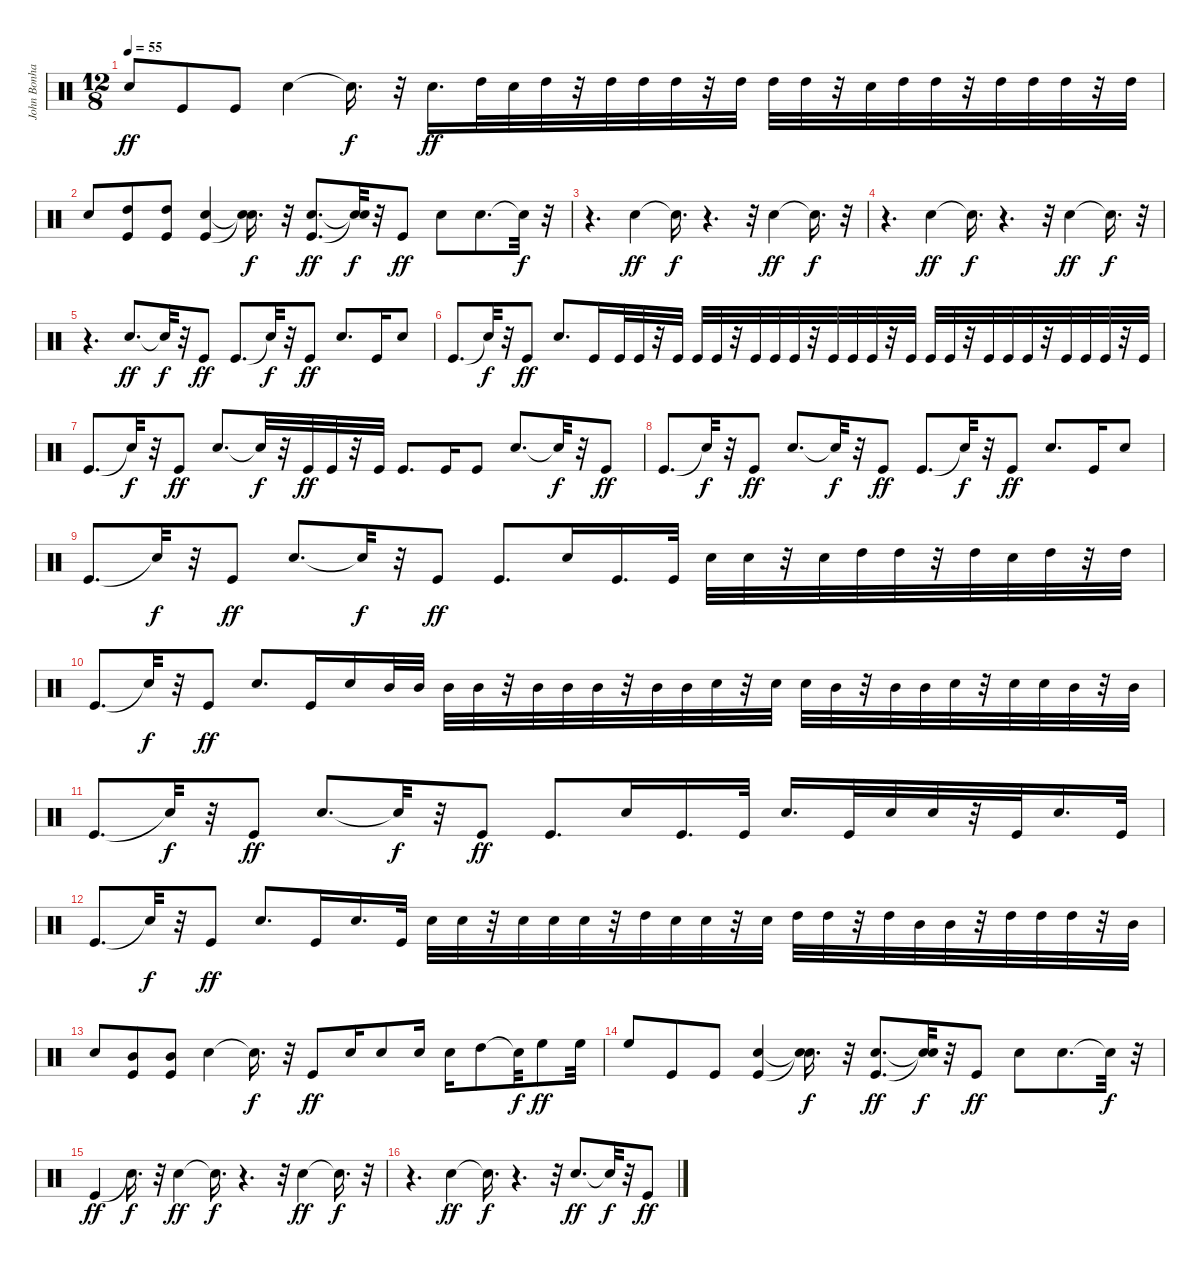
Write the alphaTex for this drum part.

\track ("John Bonham - Drums" "John Bonha") {instrument percussion}
\staff {score}
\articulation defaults
\ts (12 8)
\tempo 55
\clef neutral
\ks c "Snare (hit) 2".8{dy ff} "Kick (hit)".8 "Kick (hit)".8 "Snare (hit) 2".4 "Snare (hit)"{t}.16{d dy f}
r.32 "Snare (hit) 2".16{d dy ff} "High Tom (hit)".32 "Snare (hit) 2".32 "High Tom (hit)".32 r.32 "High Tom (hit)".32 "High Tom (hit)".32 "High Tom (hit)".32 r.32 "High Tom (hit)".32 "High Tom (hit)".32 "High Tom (hit)".32 r.32 "Snare (hit) 2".32 "High Tom (hit)".32 "High Tom (hit)".32 r.32 "High Tom (hit)".32 "High Tom (hit)".32 "High Tom (hit)".32 r.32 "High Tom (hit)".32 |
"Snare (hit) 2".8 ("Kick (hit)" "High Tom (hit)").8 ("Kick (hit)" "High Tom (hit)").8 ("Kick (hit)" "Snare (hit) 2").4 ("Snare (hit)"{t} "Snare (hit)"{t}).16{d dy f} r.32 ("Kick (hit)" "Snare (hit) 2").8{d dy ff} ("Snare (hit)"{t} "Snare (hit)"{t}).32{dy f} r.32 "Kick (hit)".8{dy ff} "Snare (hit) 2".8 "Snare (hit) 2".8{d} "Snare (hit)"{t}.32{dy f} r.32 |
r.4{d} "Snare (hit) 2".4{dy ff} "Snare (hit)"{t}.16{d dy f} r.4{d} r.32 "Snare (hit) 2".4{dy ff} "Snare (hit)"{t}.16{d dy f} r.32 |
r.4{d} "Snare (hit) 2".4{dy ff} "Snare (hit)"{t}.16{d dy f} r.4{d} r.32 "Snare (hit) 2".4{dy ff} "Snare (hit)"{t}.16{d dy f} r.32 |
r.4{d} "Snare (hit) 2".8{d dy ff} "Snare (hit)"{t}.32{dy f} r.32 "Kick (hit)".8{dy ff} "Kick (hit)".8{d} "Snare (hit)"{t}.32{dy f} r.32 "Kick (hit)".8{dy ff} "Snare (hit) 2".8{d} "Kick (hit)".16 "Snare (hit) 2".8 |
"Kick (hit)".8{d} "Snare (hit)"{t}.32{dy f} r.32 "Kick (hit)".8{dy ff} "Snare (hit) 2".8{d} "Kick (hit)".16 "Kick (hit)".32 "Kick (hit)".32 r.32 "Kick (hit)".32 "Kick (hit)".32 "Kick (hit)".32 r.32 "Kick (hit)".32 "Kick (hit)".32 "Kick (hit)".32 r.32 "Kick (hit)".32 "Kick (hit)".32 "Kick (hit)".32 r.32 "Kick (hit)".32 "Kick (hit)".32 "Kick (hit)".32 r.32 "Kick (hit)".32 "Kick (hit)".32 "Kick (hit)".32 r.32 "Kick (hit)".32 "Kick (hit)".32 "Kick (hit)".32 r.32 "Kick (hit)".32 |
"Kick (hit)".8{d} "Snare (hit)"{t}.32{dy f} r.32 "Kick (hit)".8{dy ff} "Snare (hit) 2".8{d} "Snare (hit)"{t}.32{dy f} r.32 "Kick (hit)".32{dy ff} "Kick (hit)".32 r.32 "Kick (hit)".32 "Kick (hit)".8{d} "Kick (hit)".16 "Kick (hit)".8 "Snare (hit) 2".8{d} "Snare (hit)"{t}.32{dy f} r.32 "Kick (hit)".8{dy ff} |
"Kick (hit)".8{d} "Snare (hit)"{t}.32{dy f} r.32 "Kick (hit)".8{dy ff} "Snare (hit) 2".8{d} "Snare (hit)"{t}.32{dy f} r.32 "Kick (hit)".8{dy ff} "Kick (hit)".8{d} "Snare (hit)"{t}.32{dy f} r.32 "Kick (hit)".8{dy ff} "Snare (hit) 2".8{d} "Kick (hit)".16 "Snare (hit) 2".8 |
"Kick (hit)".8{d} "Snare (hit)"{t}.32{dy f} r.32 "Kick (hit)".8{dy ff} "Snare (hit) 2".8{d} "Snare (hit)"{t}.32{dy f} r.32 "Kick (hit)".8{dy ff} "Kick (hit)".8{d} "Snare (hit) 2".16 "Kick (hit)".16{d} "Kick (hit)".32 "Snare (hit) 2".32 "Snare (hit) 2".32 r.32 "Snare (hit) 2".32 "High Tom (hit)".32 "High Tom (hit)".32 r.32 "High Tom (hit)".32 "Snare (hit) 2".32 "High Tom (hit)".32 r.32 "High Tom (hit)".32 |
"Kick (hit)".8{d} "Snare (hit)"{t}.32{dy f} r.32 "Kick (hit)".8{dy ff} "Snare (hit) 2".8{d} "Kick (hit)".16 "Snare (hit) 2".16 "Mid Tom (hit)".32 "Mid Tom (hit)".32 "Mid Tom (hit)".32 "Mid Tom (hit)".32 r.32 "Mid Tom (hit)".32 "Mid Tom (hit)".32 "Mid Tom (hit)".32 r.32 "Mid Tom (hit)".32 "Mid Tom (hit)".32 "Snare (hit) 2".32 r.32 "Snare (hit) 2".32 "Snare (hit) 2".32 "Mid Tom (hit)".32 r.32 "Mid Tom (hit)".32 "Mid Tom (hit)".32 "Snare (hit) 2".32 r.32 "Snare (hit) 2".32 "Snare (hit) 2".32 "Mid Tom (hit)".32 r.32 "Mid Tom (hit)".32 |
"Kick (hit)".8{d} "Snare (hit)"{t}.32{dy f} r.32 "Kick (hit)".8{dy ff} "Snare (hit) 2".8{d} "Snare (hit)"{t}.32{dy f} r.32 "Kick (hit)".8{dy ff} "Kick (hit)".8{d} "Snare (hit) 2".16 "Kick (hit)".16{d} "Kick (hit)".32 "Snare (hit) 2".16{d} "Kick (hit)".32 "Snare (hit) 2".32 "Snare (hit) 2".32 r.32 "Kick (hit)".32 "Snare (hit) 2".16{d} "Kick (hit)".32 |
"Kick (hit)".8{d} "Snare (hit)"{t}.32{dy f} r.32 "Kick (hit)".8{dy ff} "Snare (hit) 2".8{d} "Kick (hit)".16 "Snare (hit) 2".16{d} "Kick (hit)".32 "Snare (hit) 2".32 "Snare (hit) 2".32 r.32 "Snare (hit) 2".32 "Snare (hit) 2".32 "Snare (hit) 2".32 r.32 "High Tom (hit)".32 "Snare (hit) 2".32 "Snare (hit) 2".32 r.32 "Snare (hit) 2".32 "High Tom (hit)".32 "High Tom (hit)".32 r.32 "High Tom (hit)".32 "Mid Tom (hit)".32 "Mid Tom (hit)".32 r.32 "High Tom (hit)".32 "High Tom (hit)".32 "High Tom (hit)".32 r.32 "Mid Tom (hit)".32 |
"Snare (hit) 2".8 ("Kick (hit)" "Mid Tom (hit)").8 ("Kick (hit)" "Mid Tom (hit)").8 "Snare (hit) 2".4 "Snare (hit)"{t}.16{d dy f} r.32 "Kick (hit)".8{dy ff} "Snare (hit) 2".16 "Snare (hit) 2".8 "Snare (hit) 2".16 "Snare (hit) 2".16 "High Tom (hit)".8 "Snare (hit)"{t}.32{dy f} "High Floor Tom (hit)".8{dy ff} "High Floor Tom (hit)".32 |
"High Floor Tom (hit)".8 "Kick (hit)".8 "Kick (hit)".8 ("Kick (hit)" "Snare (hit) 2").4 ("Snare (hit)"{t} "Snare (hit)"{t}).16{d dy f} r.32 ("Kick (hit)" "Snare (hit) 2").8{d dy ff} ("Snare (hit)"{t} "Snare (hit)"{t}).32{dy f} r.32 "Kick (hit)".8{dy ff} "Snare (hit) 2".8 "Snare (hit) 2".8{d} "Snare (hit)"{t}.32{dy f} r.32 |
"Kick (hit)".4{dy ff} "Snare (hit)"{t}.16{d dy f} r.32 "Snare (hit) 2".4{dy ff} "Snare (hit)"{t}.16{d dy f} r.4{d} r.32 "Snare (hit) 2".4{dy ff} "Snare (hit)"{t}.16{d dy f} r.32 |
r.4{d} "Snare (hit) 2".4{dy ff} "Snare (hit)"{t}.16{d dy f} r.4{d} r.32 "Snare (hit) 2".8{d dy ff} "Snare (hit)"{t}.32{dy f} r.32 "Kick (hit)".8{dy ff}
